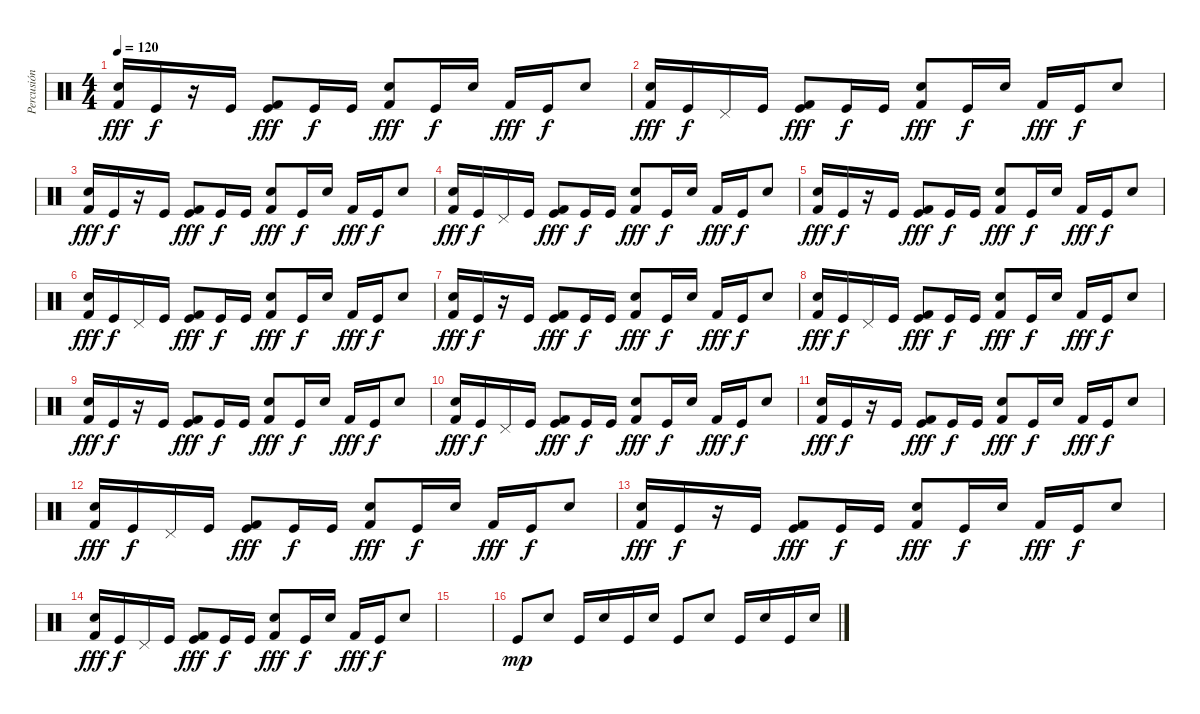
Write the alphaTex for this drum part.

\track ("Percusión" "Percusión") {instrument percussion}
\staff {score}
\articulation defaults
\ts (4 4)
\tempo 120
\clef neutral
\ks c
("Electric Snare (hit)" "Kick (hit) 2").16{dy fff} "Kick (hit)".16{dy f} r.16 "Kick (hit)".16 ("Kick (hit)" "Kick (hit) 2").8{dy fff} "Kick (hit)".16{dy f} "Kick (hit)".16 ("Electric Snare (hit)" "Kick (hit) 2").8{dy fff} "Kick (hit)".16{dy f} "Electric Snare (hit)".16 "Kick (hit) 2".16{dy fff} "Kick (hit)".16{dy f} "Electric Snare (hit)".8 |
("Electric Snare (hit)" "Kick (hit) 2").16{dy fff} "Kick (hit)".16{dy f} "Pedal Hi-Hat (hit)".16 "Kick (hit)".16 ("Kick (hit)" "Kick (hit) 2").8{dy fff} "Kick (hit)".16{dy f} "Kick (hit)".16 ("Electric Snare (hit)" "Kick (hit) 2").8{dy fff} "Kick (hit)".16{dy f} "Electric Snare (hit)".16 "Kick (hit) 2".16{dy fff} "Kick (hit)".16{dy f} "Electric Snare (hit)".8 |
("Electric Snare (hit)" "Kick (hit) 2").16{dy fff} "Kick (hit)".16{dy f} r.16 "Kick (hit)".16 ("Kick (hit)" "Kick (hit) 2").8{dy fff} "Kick (hit)".16{dy f} "Kick (hit)".16 ("Electric Snare (hit)" "Kick (hit) 2").8{dy fff} "Kick (hit)".16{dy f} "Electric Snare (hit)".16 "Kick (hit) 2".16{dy fff} "Kick (hit)".16{dy f} "Electric Snare (hit)".8 |
("Electric Snare (hit)" "Kick (hit) 2").16{dy fff} "Kick (hit)".16{dy f} "Pedal Hi-Hat (hit)".16 "Kick (hit)".16 ("Kick (hit)" "Kick (hit) 2").8{dy fff} "Kick (hit)".16{dy f} "Kick (hit)".16 ("Electric Snare (hit)" "Kick (hit) 2").8{dy fff} "Kick (hit)".16{dy f} "Electric Snare (hit)".16 "Kick (hit) 2".16{dy fff} "Kick (hit)".16{dy f} "Electric Snare (hit)".8 |
("Electric Snare (hit)" "Kick (hit) 2").16{dy fff} "Kick (hit)".16{dy f} r.16 "Kick (hit)".16 ("Kick (hit)" "Kick (hit) 2").8{dy fff} "Kick (hit)".16{dy f} "Kick (hit)".16 ("Electric Snare (hit)" "Kick (hit) 2").8{dy fff} "Kick (hit)".16{dy f} "Electric Snare (hit)".16 "Kick (hit) 2".16{dy fff} "Kick (hit)".16{dy f} "Electric Snare (hit)".8 |
("Electric Snare (hit)" "Kick (hit) 2").16{dy fff} "Kick (hit)".16{dy f} "Pedal Hi-Hat (hit)".16 "Kick (hit)".16 ("Kick (hit)" "Kick (hit) 2").8{dy fff} "Kick (hit)".16{dy f} "Kick (hit)".16 ("Electric Snare (hit)" "Kick (hit) 2").8{dy fff} "Kick (hit)".16{dy f} "Electric Snare (hit)".16 "Kick (hit) 2".16{dy fff} "Kick (hit)".16{dy f} "Electric Snare (hit)".8 |
("Electric Snare (hit)" "Kick (hit) 2").16{dy fff} "Kick (hit)".16{dy f} r.16 "Kick (hit)".16 ("Kick (hit)" "Kick (hit) 2").8{dy fff} "Kick (hit)".16{dy f} "Kick (hit)".16 ("Electric Snare (hit)" "Kick (hit) 2").8{dy fff} "Kick (hit)".16{dy f} "Electric Snare (hit)".16 "Kick (hit) 2".16{dy fff} "Kick (hit)".16{dy f} "Electric Snare (hit)".8 |
("Electric Snare (hit)" "Kick (hit) 2").16{dy fff} "Kick (hit)".16{dy f} "Pedal Hi-Hat (hit)".16 "Kick (hit)".16 ("Kick (hit)" "Kick (hit) 2").8{dy fff} "Kick (hit)".16{dy f} "Kick (hit)".16 ("Electric Snare (hit)" "Kick (hit) 2").8{dy fff} "Kick (hit)".16{dy f} "Electric Snare (hit)".16 "Kick (hit) 2".16{dy fff} "Kick (hit)".16{dy f} "Electric Snare (hit)".8 |
("Electric Snare (hit)" "Kick (hit) 2").16{dy fff} "Kick (hit)".16{dy f} r.16 "Kick (hit)".16 ("Kick (hit)" "Kick (hit) 2").8{dy fff} "Kick (hit)".16{dy f} "Kick (hit)".16 ("Electric Snare (hit)" "Kick (hit) 2").8{dy fff} "Kick (hit)".16{dy f} "Electric Snare (hit)".16 "Kick (hit) 2".16{dy fff} "Kick (hit)".16{dy f} "Electric Snare (hit)".8 |
("Electric Snare (hit)" "Kick (hit) 2").16{dy fff} "Kick (hit)".16{dy f} "Pedal Hi-Hat (hit)".16 "Kick (hit)".16 ("Kick (hit)" "Kick (hit) 2").8{dy fff} "Kick (hit)".16{dy f} "Kick (hit)".16 ("Electric Snare (hit)" "Kick (hit) 2").8{dy fff} "Kick (hit)".16{dy f} "Electric Snare (hit)".16 "Kick (hit) 2".16{dy fff} "Kick (hit)".16{dy f} "Electric Snare (hit)".8 |
("Electric Snare (hit)" "Kick (hit) 2").16{dy fff} "Kick (hit)".16{dy f} r.16 "Kick (hit)".16 ("Kick (hit)" "Kick (hit) 2").8{dy fff} "Kick (hit)".16{dy f} "Kick (hit)".16 ("Electric Snare (hit)" "Kick (hit) 2").8{dy fff} "Kick (hit)".16{dy f} "Electric Snare (hit)".16 "Kick (hit) 2".16{dy fff} "Kick (hit)".16{dy f} "Electric Snare (hit)".8 |
("Electric Snare (hit)" "Kick (hit) 2").16{dy fff} "Kick (hit)".16{dy f} "Pedal Hi-Hat (hit)".16 "Kick (hit)".16 ("Kick (hit)" "Kick (hit) 2").8{dy fff} "Kick (hit)".16{dy f} "Kick (hit)".16 ("Electric Snare (hit)" "Kick (hit) 2").8{dy fff} "Kick (hit)".16{dy f} "Electric Snare (hit)".16 "Kick (hit) 2".16{dy fff} "Kick (hit)".16{dy f} "Electric Snare (hit)".8 |
("Electric Snare (hit)" "Kick (hit) 2").16{dy fff} "Kick (hit)".16{dy f} r.16 "Kick (hit)".16 ("Kick (hit)" "Kick (hit) 2").8{dy fff} "Kick (hit)".16{dy f} "Kick (hit)".16 ("Electric Snare (hit)" "Kick (hit) 2").8{dy fff} "Kick (hit)".16{dy f} "Electric Snare (hit)".16 "Kick (hit) 2".16{dy fff} "Kick (hit)".16{dy f} "Electric Snare (hit)".8 |
("Electric Snare (hit)" "Kick (hit) 2").16{dy fff} "Kick (hit)".16{dy f} "Pedal Hi-Hat (hit)".16 "Kick (hit)".16 ("Kick (hit)" "Kick (hit) 2").8{dy fff} "Kick (hit)".16{dy f} "Kick (hit)".16 ("Electric Snare (hit)" "Kick (hit) 2").8{dy fff} "Kick (hit)".16{dy f} "Electric Snare (hit)".16 "Kick (hit) 2".16{dy fff} "Kick (hit)".16{dy f} "Electric Snare (hit)".8 |
|
"Kick (hit)".8{dy mp} "Electric Snare (hit)".8 "Kick (hit)".16 "Electric Snare (hit)".16 "Kick (hit)".16 "Electric Snare (hit)".16 "Kick (hit)".8 "Electric Snare (hit)".8 "Kick (hit)".16 "Electric Snare (hit)".16 "Kick (hit)".16 "Electric Snare (hit)".16
